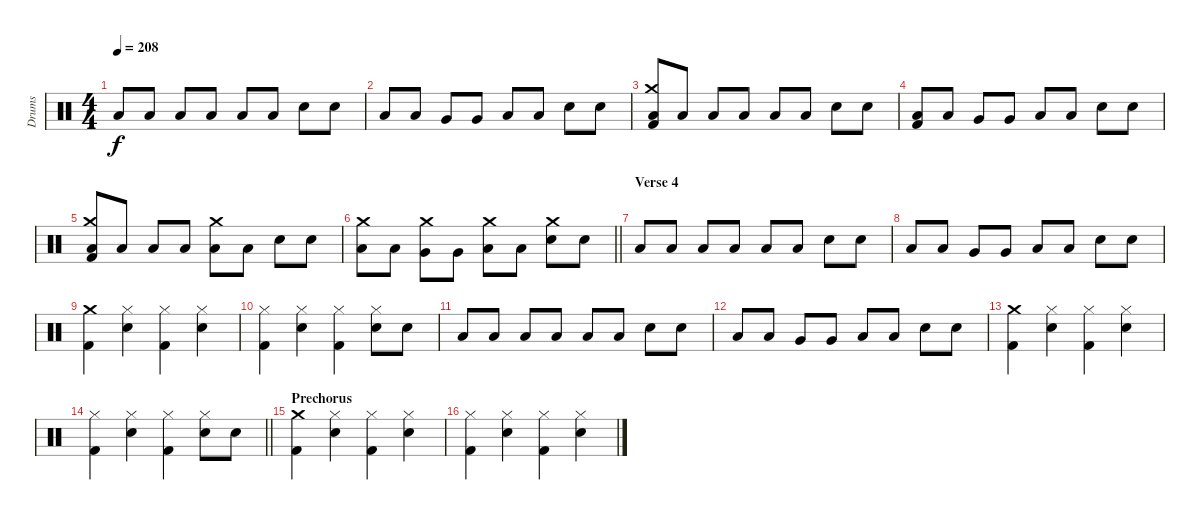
\track ("Drums" "Drums") {instrument percussion}
\staff {score}
\articulation defaults
\ts (4 4)
\tempo 208
\clef neutral
\ks c "Low Floor Tom (hit)".8{dy f} "Low Floor Tom (hit)".8 "Low Tom (hit)".8 "Low Tom (hit)".8 "Low Floor Tom (hit)".8 "Low Floor Tom (hit)".8 "Snare (hit) 2".8 "Snare (hit) 2".8
|
"Low Floor Tom (hit)".8 "Low Floor Tom (hit)".8 "Very Low Tom (hit)".8 "Very Low Tom (hit)".8 "Low Floor Tom (hit)".8 "Low Floor Tom (hit)".8 "Snare (hit) 2".8 "Snare (hit) 2".8 |
("Crash medium (hit)" "Low Floor Tom (hit)" "Kick (hit) 2").8 "Low Floor Tom (hit)".8 "Low Tom (hit)".8 "Low Tom (hit)".8 "Low Floor Tom (hit)".8 "Low Floor Tom (hit)".8 "Snare (hit) 2".8 "Snare (hit) 2".8 |
("Low Floor Tom (hit)" "Kick (hit) 2").8 "Low Floor Tom (hit)".8 "Very Low Tom (hit)".8 "Very Low Tom (hit)".8 "Low Floor Tom (hit)".8 "Low Floor Tom (hit)".8 "Snare (hit) 2".8 "Snare (hit) 2".8 |
("Crash medium (hit)" "Low Floor Tom (hit)" "Kick (hit) 2").8 "Low Floor Tom (hit)".8 "Low Tom (hit)".8 "Low Tom (hit)".8 ("Crash medium (hit)" "Low Floor Tom (hit)").8 "Low Floor Tom (hit)".8 "Snare (hit) 2".8 "Snare (hit) 2".8 |
\barLineRight lightlight
("Crash medium (hit)" "Low Floor Tom (hit)").8 "Low Floor Tom (hit)".8 ("Crash medium (hit)" "Very Low Tom (hit)").8 "Very Low Tom (hit)".8 ("Crash medium (hit)" "Low Floor Tom (hit)").8 "Low Floor Tom (hit)".8 ("Crash medium (hit)" "Snare (hit) 2").8 "Snare (hit) 2".8 |
\section ("" "Verse 4")
"Low Floor Tom (hit)".8 "Low Floor Tom (hit)".8 "Low Tom (hit)".8 "Low Tom (hit)".8 "Low Floor Tom (hit)".8 "Low Floor Tom (hit)".8 "Snare (hit) 2".8 "Snare (hit) 2".8 |
"Low Floor Tom (hit)".8 "Low Floor Tom (hit)".8 "Very Low Tom (hit)".8 "Very Low Tom (hit)".8 "Low Floor Tom (hit)".8 "Low Floor Tom (hit)".8 "Snare (hit) 2".8 "Snare (hit) 2".8 |
("Crash medium (hit)" "Kick (hit) 2").4 ("Hi-Hat (closed)" "Snare (hit) 2").4 ("Hi-Hat (closed)" "Kick (hit) 2").4 ("Hi-Hat (closed)" "Snare (hit) 2").4 |
("Hi-Hat (closed)" "Kick (hit) 2").4 ("Hi-Hat (closed)" "Snare (hit) 2").4 ("Hi-Hat (closed)" "Kick (hit) 2").4 ("Hi-Hat (closed)" "Snare (hit) 2").8 "Snare (hit) 2".8 |
"Low Floor Tom (hit)".8 "Low Floor Tom (hit)".8 "Low Tom (hit)".8 "Low Tom (hit)".8 "Low Floor Tom (hit)".8 "Low Floor Tom (hit)".8 "Snare (hit) 2".8 "Snare (hit) 2".8 |
"Low Floor Tom (hit)".8 "Low Floor Tom (hit)".8 "Very Low Tom (hit)".8 "Very Low Tom (hit)".8 "Low Floor Tom (hit)".8 "Low Floor Tom (hit)".8 "Snare (hit) 2".8 "Snare (hit) 2".8 |
("Crash medium (hit)" "Kick (hit) 2").4 ("Hi-Hat (closed)" "Snare (hit) 2").4 ("Hi-Hat (closed)" "Kick (hit) 2").4 ("Hi-Hat (closed)" "Snare (hit) 2").4 |
\barLineRight lightlight
("Hi-Hat (closed)" "Kick (hit) 2").4 ("Hi-Hat (closed)" "Snare (hit) 2").4 ("Hi-Hat (closed)" "Kick (hit) 2").4 ("Hi-Hat (closed)" "Snare (hit) 2").8 "Snare (hit) 2".8 |
\section ("" "Prechorus")
("Crash medium (hit)" "Kick (hit) 2").4 ("Hi-Hat (closed)" "Snare (hit) 2").4 ("Hi-Hat (closed)" "Kick (hit) 2").4 ("Hi-Hat (closed)" "Snare (hit) 2").4 |
("Hi-Hat (closed)" "Kick (hit) 2").4 ("Hi-Hat (closed)" "Snare (hit) 2").4 ("Hi-Hat (closed)" "Kick (hit) 2").4 ("Hi-Hat (closed)" "Snare (hit) 2").4
